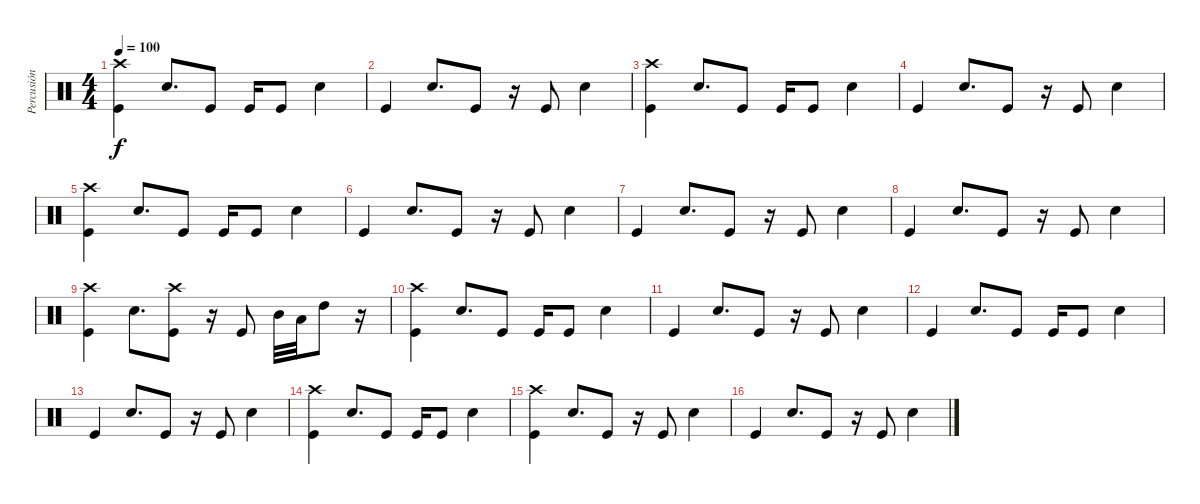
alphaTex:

\track ("Percusión" "Percusión") {instrument percussion}
\staff {score}
\articulation defaults
\ts (4 4)
\tempo 100
\clef neutral
\ks c
("Crash high (hit)" "Kick (hit)").4{dy f} "Snare (hit) 2".8{d} "Kick (hit)".8 "Kick (hit)".16 "Kick (hit)".8 "Snare (hit) 2".4 |
"Kick (hit)".4 "Snare (hit) 2".8{d} "Kick (hit)".8 r.16 "Kick (hit)".8 "Snare (hit) 2".4 |
("Crash high (hit)" "Kick (hit)").4 "Snare (hit) 2".8{d} "Kick (hit)".8 "Kick (hit)".16 "Kick (hit)".8 "Snare (hit) 2".4 |
"Kick (hit)".4 "Snare (hit) 2".8{d} "Kick (hit)".8 r.16 "Kick (hit)".8 "Snare (hit) 2".4 |
("Crash high (hit)" "Kick (hit)").4 "Snare (hit) 2".8{d} "Kick (hit)".8 "Kick (hit)".16 "Kick (hit)".8 "Snare (hit) 2".4 |
"Kick (hit)".4 "Snare (hit) 2".8{d} "Kick (hit)".8 r.16 "Kick (hit)".8 "Snare (hit) 2".4 |
"Kick (hit)".4 "Snare (hit) 2".8{d} "Kick (hit)".8 r.16 "Kick (hit)".8 "Snare (hit) 2".4 |
"Kick (hit)".4 "Snare (hit) 2".8{d} "Kick (hit)".8 r.16 "Kick (hit)".8 "Snare (hit) 2".4 |
("Kick (hit)" "Crash high (hit)").4 "Snare (hit) 2".8{d} ("Kick (hit)" "Crash high (hit)").8 r.16 "Kick (hit)".8 "Mid Tom (hit)".32 "Low Tom (hit)".32 "High Tom (hit)".8 r.16 |
("Crash high (hit)" "Kick (hit)").4 "Snare (hit) 2".8{d} "Kick (hit)".8 "Kick (hit)".16 "Kick (hit)".8 "Snare (hit) 2".4 |
"Kick (hit)".4 "Snare (hit) 2".8{d} "Kick (hit)".8 r.16 "Kick (hit)".8 "Snare (hit) 2".4 |
"Kick (hit)".4 "Snare (hit) 2".8{d} "Kick (hit)".8 "Kick (hit)".16 "Kick (hit)".8 "Snare (hit) 2".4 |
"Kick (hit)".4 "Snare (hit) 2".8{d} "Kick (hit)".8 r.16 "Kick (hit)".8 "Snare (hit) 2".4 |
("Crash high (hit)" "Kick (hit)").4 "Snare (hit) 2".8{d} "Kick (hit)".8 "Kick (hit)".16 "Kick (hit)".8 "Snare (hit) 2".4 |
("Kick (hit)" "Crash high (hit)").4 "Snare (hit) 2".8{d} "Kick (hit)".8 r.16 "Kick (hit)".8 "Snare (hit) 2".4 |
"Kick (hit)".4 "Snare (hit) 2".8{d} "Kick (hit)".8 r.16 "Kick (hit)".8 "Snare (hit) 2".4
